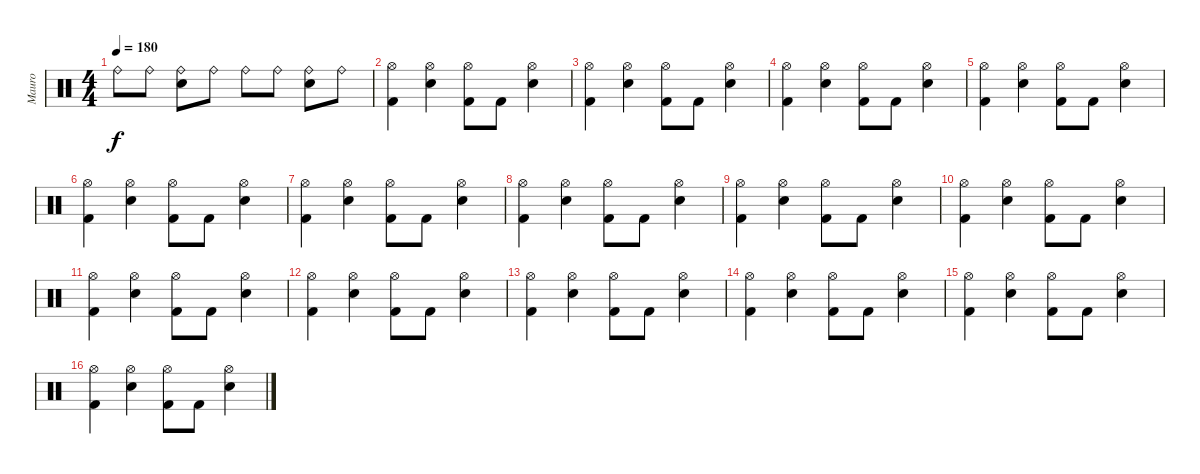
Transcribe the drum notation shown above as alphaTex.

\track ("Mauro" "Mauro") {instrument percussion}
\staff {score}
\articulation defaults
\ts (4 4)
\tempo 180
\clef neutral
\ks c "Ride (bell)".8{dy f} "Ride (bell)".8
("Ride (bell)" "Snare (hit) 2").8 "Ride (bell)".8 "Ride (bell)".8 "Ride (bell)".8 ("Ride (bell)" "Snare (hit) 2").8 "Ride (bell)".8 |
("Hi-Hat (open)" "Kick (hit) 2").4 ("Hi-Hat (open)" "Snare (hit) 2").4 ("Hi-Hat (open)" "Kick (hit) 2").8 "Kick (hit) 2".8 ("Hi-Hat (open)" "Snare (hit) 2").4 |
("Hi-Hat (open)" "Kick (hit) 2").4 ("Hi-Hat (open)" "Snare (hit) 2").4 ("Hi-Hat (open)" "Kick (hit) 2").8 "Kick (hit) 2".8 ("Hi-Hat (open)" "Snare (hit) 2").4 |
("Hi-Hat (open)" "Kick (hit) 2").4 ("Hi-Hat (open)" "Snare (hit) 2").4 ("Hi-Hat (open)" "Kick (hit) 2").8 "Kick (hit) 2".8 ("Hi-Hat (open)" "Snare (hit) 2").4 |
("Hi-Hat (open)" "Kick (hit) 2").4 ("Hi-Hat (open)" "Snare (hit) 2").4 ("Hi-Hat (open)" "Kick (hit) 2").8 "Kick (hit) 2".8 ("Hi-Hat (open)" "Snare (hit) 2").4 |
("Hi-Hat (open)" "Kick (hit) 2").4 ("Hi-Hat (open)" "Snare (hit) 2").4 ("Hi-Hat (open)" "Kick (hit) 2").8 "Kick (hit) 2".8 ("Hi-Hat (open)" "Snare (hit) 2").4 |
("Hi-Hat (open)" "Kick (hit) 2").4 ("Hi-Hat (open)" "Snare (hit) 2").4 ("Hi-Hat (open)" "Kick (hit) 2").8 "Kick (hit) 2".8 ("Hi-Hat (open)" "Snare (hit) 2").4 |
("Hi-Hat (open)" "Kick (hit) 2").4 ("Hi-Hat (open)" "Snare (hit) 2").4 ("Hi-Hat (open)" "Kick (hit) 2").8 "Kick (hit) 2".8 ("Hi-Hat (open)" "Snare (hit) 2").4 |
("Hi-Hat (open)" "Kick (hit) 2").4 ("Hi-Hat (open)" "Snare (hit) 2").4 ("Hi-Hat (open)" "Kick (hit) 2").8 "Kick (hit) 2".8 ("Hi-Hat (open)" "Snare (hit) 2").4 |
("Hi-Hat (open)" "Kick (hit) 2").4 ("Hi-Hat (open)" "Snare (hit) 2").4 ("Hi-Hat (open)" "Kick (hit) 2").8 "Kick (hit) 2".8 ("Hi-Hat (open)" "Snare (hit) 2").4 |
("Hi-Hat (open)" "Kick (hit) 2").4 ("Hi-Hat (open)" "Snare (hit) 2").4 ("Hi-Hat (open)" "Kick (hit) 2").8 "Kick (hit) 2".8 ("Hi-Hat (open)" "Snare (hit) 2").4 |
("Hi-Hat (open)" "Kick (hit) 2").4 ("Hi-Hat (open)" "Snare (hit) 2").4 ("Hi-Hat (open)" "Kick (hit) 2").8 "Kick (hit) 2".8 ("Hi-Hat (open)" "Snare (hit) 2").4 |
("Hi-Hat (open)" "Kick (hit) 2").4 ("Hi-Hat (open)" "Snare (hit) 2").4 ("Hi-Hat (open)" "Kick (hit) 2").8 "Kick (hit) 2".8 ("Hi-Hat (open)" "Snare (hit) 2").4 |
("Hi-Hat (open)" "Kick (hit) 2").4 ("Hi-Hat (open)" "Snare (hit) 2").4 ("Hi-Hat (open)" "Kick (hit) 2").8 "Kick (hit) 2".8 ("Hi-Hat (open)" "Snare (hit) 2").4 |
("Hi-Hat (open)" "Kick (hit) 2").4 ("Hi-Hat (open)" "Snare (hit) 2").4 ("Hi-Hat (open)" "Kick (hit) 2").8 "Kick (hit) 2".8 ("Hi-Hat (open)" "Snare (hit) 2").4 |
("Hi-Hat (open)" "Kick (hit) 2").4 ("Hi-Hat (open)" "Snare (hit) 2").4 ("Hi-Hat (open)" "Kick (hit) 2").8 "Kick (hit) 2".8 ("Hi-Hat (open)" "Snare (hit) 2").4
